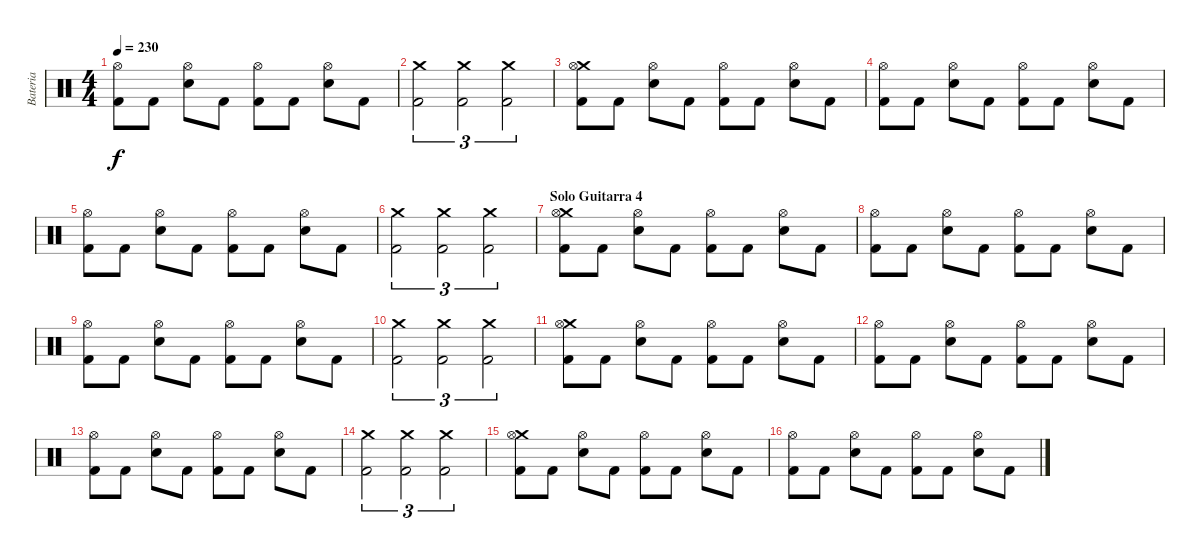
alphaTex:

\track ("Bateria" "Bateria") {instrument percussion}
\staff {score}
\articulation defaults
\ts (4 4)
\tempo 230
\clef neutral
\ks c
("Hi-Hat (open)" "Kick (hit) 2").8{dy f} "Kick (hit) 2".8 ("Hi-Hat (open)" "Snare (hit) 2").8 "Kick (hit) 2".8 ("Hi-Hat (open)" "Kick (hit) 2").8 "Kick (hit) 2".8 ("Hi-Hat (open)" "Snare (hit) 2").8 "Kick (hit) 2".8 |
("Crash medium (hit)" "Kick (hit) 2").2{tu (3 2)} ("Crash medium (hit)" "Kick (hit) 2").2{tu (3 2)} ("Crash medium (hit)" "Kick (hit) 2").2{tu (3 2)} |
("Crash medium (hit)" "Hi-Hat (open)" "Kick (hit) 2").8 "Kick (hit) 2".8 ("Hi-Hat (open)" "Snare (hit) 2").8 "Kick (hit) 2".8 ("Hi-Hat (open)" "Kick (hit) 2").8 "Kick (hit) 2".8 ("Hi-Hat (open)" "Snare (hit) 2").8 "Kick (hit) 2".8 |
("Hi-Hat (open)" "Kick (hit) 2").8 "Kick (hit) 2".8 ("Hi-Hat (open)" "Snare (hit) 2").8 "Kick (hit) 2".8 ("Hi-Hat (open)" "Kick (hit) 2").8 "Kick (hit) 2".8 ("Hi-Hat (open)" "Snare (hit) 2").8 "Kick (hit) 2".8 |
("Hi-Hat (open)" "Kick (hit) 2").8 "Kick (hit) 2".8 ("Hi-Hat (open)" "Snare (hit) 2").8 "Kick (hit) 2".8 ("Hi-Hat (open)" "Kick (hit) 2").8 "Kick (hit) 2".8 ("Hi-Hat (open)" "Snare (hit) 2").8 "Kick (hit) 2".8 |
("Crash medium (hit)" "Kick (hit) 2").2{tu (3 2)} ("Crash medium (hit)" "Kick (hit) 2").2{tu (3 2)} ("Crash medium (hit)" "Kick (hit) 2").2{tu (3 2)} |
\section ("" "Solo Guitarra 4")
("Crash medium (hit)" "Hi-Hat (open)" "Kick (hit) 2").8 "Kick (hit) 2".8 ("Hi-Hat (open)" "Snare (hit) 2").8 "Kick (hit) 2".8 ("Hi-Hat (open)" "Kick (hit) 2").8 "Kick (hit) 2".8 ("Hi-Hat (open)" "Snare (hit) 2").8 "Kick (hit) 2".8 |
("Hi-Hat (open)" "Kick (hit) 2").8 "Kick (hit) 2".8 ("Hi-Hat (open)" "Snare (hit) 2").8 "Kick (hit) 2".8 ("Hi-Hat (open)" "Kick (hit) 2").8 "Kick (hit) 2".8 ("Hi-Hat (open)" "Snare (hit) 2").8 "Kick (hit) 2".8 |
("Hi-Hat (open)" "Kick (hit) 2").8 "Kick (hit) 2".8 ("Hi-Hat (open)" "Snare (hit) 2").8 "Kick (hit) 2".8 ("Hi-Hat (open)" "Kick (hit) 2").8 "Kick (hit) 2".8 ("Hi-Hat (open)" "Snare (hit) 2").8 "Kick (hit) 2".8 |
("Crash medium (hit)" "Kick (hit) 2").2{tu (3 2)} ("Crash medium (hit)" "Kick (hit) 2").2{tu (3 2)} ("Crash medium (hit)" "Kick (hit) 2").2{tu (3 2)} |
("Crash medium (hit)" "Hi-Hat (open)" "Kick (hit) 2").8 "Kick (hit) 2".8 ("Hi-Hat (open)" "Snare (hit) 2").8 "Kick (hit) 2".8 ("Hi-Hat (open)" "Kick (hit) 2").8 "Kick (hit) 2".8 ("Hi-Hat (open)" "Snare (hit) 2").8 "Kick (hit) 2".8 |
("Hi-Hat (open)" "Kick (hit) 2").8 "Kick (hit) 2".8 ("Hi-Hat (open)" "Snare (hit) 2").8 "Kick (hit) 2".8 ("Hi-Hat (open)" "Kick (hit) 2").8 "Kick (hit) 2".8 ("Hi-Hat (open)" "Snare (hit) 2").8 "Kick (hit) 2".8 |
("Hi-Hat (open)" "Kick (hit) 2").8 "Kick (hit) 2".8 ("Hi-Hat (open)" "Snare (hit) 2").8 "Kick (hit) 2".8 ("Hi-Hat (open)" "Kick (hit) 2").8 "Kick (hit) 2".8 ("Hi-Hat (open)" "Snare (hit) 2").8 "Kick (hit) 2".8 |
("Crash medium (hit)" "Kick (hit) 2").2{tu (3 2)} ("Crash medium (hit)" "Kick (hit) 2").2{tu (3 2)} ("Crash medium (hit)" "Kick (hit) 2").2{tu (3 2)} |
("Crash medium (hit)" "Hi-Hat (open)" "Kick (hit) 2").8 "Kick (hit) 2".8 ("Hi-Hat (open)" "Snare (hit) 2").8 "Kick (hit) 2".8 ("Hi-Hat (open)" "Kick (hit) 2").8 "Kick (hit) 2".8 ("Hi-Hat (open)" "Snare (hit) 2").8 "Kick (hit) 2".8 |
("Hi-Hat (open)" "Kick (hit) 2").8 "Kick (hit) 2".8 ("Hi-Hat (open)" "Snare (hit) 2").8 "Kick (hit) 2".8 ("Hi-Hat (open)" "Kick (hit) 2").8 "Kick (hit) 2".8 ("Hi-Hat (open)" "Snare (hit) 2").8 "Kick (hit) 2".8
